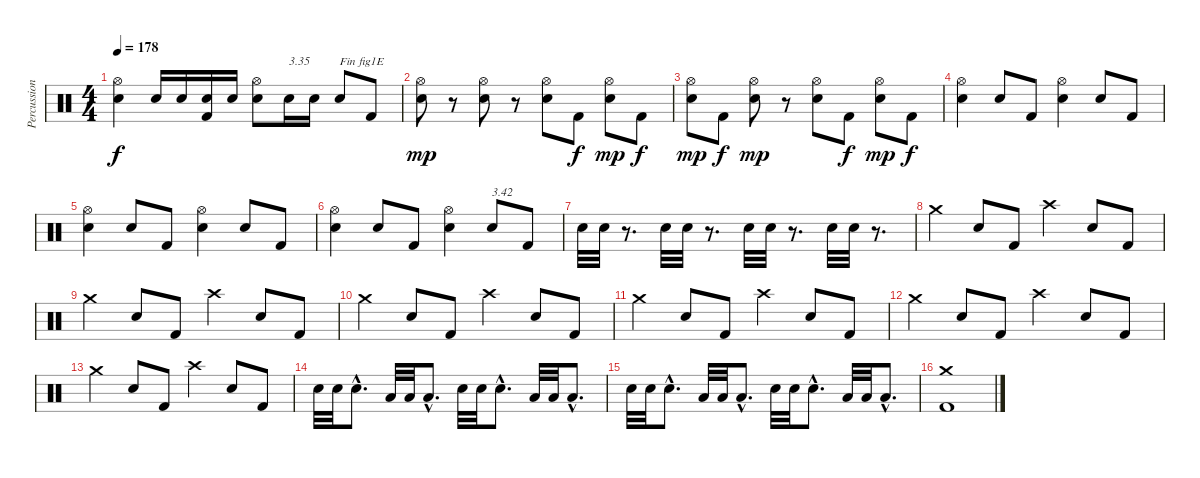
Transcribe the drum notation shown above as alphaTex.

\track ("Percussions" "Percussion") {instrument percussion}
\staff {score}
\articulation defaults
\ts (4 4)
\tempo 178
\clef neutral
\ks c
("Electric Snare (hit)" "Hi-Hat (open)").4{dy f} "Electric Snare (hit)".16 "Electric Snare (hit)".16 ("Kick (hit) 2" "Electric Snare (hit)").16 "Electric Snare (hit)".16 ("Electric Snare (hit)" "Hi-Hat (open)").8 "Electric Snare (hit)".16{txt "3.35"} "Electric Snare (hit)".16 "Electric Snare (hit)".8{txt "Fin fig1E"} "Kick (hit) 2".8 |
("Electric Snare (hit)" "Hi-Hat (open)").8{dy mp} r.8 ("Electric Snare (hit)" "Hi-Hat (open)").8 r.8 ("Electric Snare (hit)" "Hi-Hat (open)").8 "Kick (hit) 2".8{dy f} ("Electric Snare (hit)" "Hi-Hat (open)").8{dy mp} "Kick (hit) 2".8{dy f} |
("Electric Snare (hit)" "Hi-Hat (open)").8{dy mp} "Kick (hit) 2".8{dy f} ("Electric Snare (hit)" "Hi-Hat (open)").8{dy mp} r.8 ("Electric Snare (hit)" "Hi-Hat (open)").8 "Kick (hit) 2".8{dy f} ("Electric Snare (hit)" "Hi-Hat (open)").8{dy mp} "Kick (hit) 2".8{dy f} |
("Electric Snare (hit)" "Hi-Hat (open)").4 "Electric Snare (hit)".8 "Kick (hit) 2".8 ("Electric Snare (hit)" "Hi-Hat (open)").4 "Electric Snare (hit)".8 "Kick (hit) 2".8 |
("Electric Snare (hit)" "Hi-Hat (open)").4 "Electric Snare (hit)".8 "Kick (hit) 2".8 ("Electric Snare (hit)" "Hi-Hat (open)").4 "Electric Snare (hit)".8 "Kick (hit) 2".8 |
("Electric Snare (hit)" "Hi-Hat (open)").4 "Electric Snare (hit)".8 "Kick (hit) 2".8 ("Electric Snare (hit)" "Hi-Hat (open)").4 "Electric Snare (hit)".8{txt "3.42"} "Kick (hit) 2".8 |
"Electric Snare (hit)".32 "Electric Snare (hit)".32 r.8{d} "Electric Snare (hit)".32 "Electric Snare (hit)".32 r.8{d} "Electric Snare (hit)".32 "Electric Snare (hit)".32 r.8{d} "Electric Snare (hit)".32 "Electric Snare (hit)".32 r.8{d} |
"Crash medium (hit)".4 "Electric Snare (hit)".8 "Kick (hit) 2".8 "Crash high (hit)".4 "Electric Snare (hit)".8 "Kick (hit) 2".8 |
"Crash medium (hit)".4 "Electric Snare (hit)".8 "Kick (hit) 2".8 "Crash high (hit)".4 "Electric Snare (hit)".8 "Kick (hit) 2".8 |
"Crash medium (hit)".4 "Electric Snare (hit)".8 "Kick (hit) 2".8 "Crash high (hit)".4 "Electric Snare (hit)".8 "Kick (hit) 2".8 |
"Crash medium (hit)".4 "Electric Snare (hit)".8 "Kick (hit) 2".8 "Crash high (hit)".4 "Electric Snare (hit)".8 "Kick (hit) 2".8 |
"Crash medium (hit)".4 "Electric Snare (hit)".8 "Kick (hit) 2".8 "Crash high (hit)".4 "Electric Snare (hit)".8 "Kick (hit) 2".8 |
"Crash medium (hit)".4 "Electric Snare (hit)".8 "Kick (hit) 2".8 "Crash high (hit)".4 "Electric Snare (hit)".8 "Kick (hit) 2".8 |
"Electric Snare (hit)".32 "Electric Snare (hit)".32 "Electric Snare (hit)"{hac}.8{d} "Low Floor Tom (hit)".32 "Low Floor Tom (hit)".32 "Low Floor Tom (hit)"{hac}.8{d} "Electric Snare (hit)".32 "Electric Snare (hit)".32 "Electric Snare (hit)"{hac}.8{d} "Low Floor Tom (hit)".32 "Low Floor Tom (hit)".32 "Low Floor Tom (hit)"{hac}.8{d} |
"Electric Snare (hit)".32 "Electric Snare (hit)".32 "Electric Snare (hit)"{hac}.8{d} "Low Floor Tom (hit)".32 "Low Floor Tom (hit)".32 "Low Floor Tom (hit)"{hac}.8{d} "Electric Snare (hit)".32 "Electric Snare (hit)".32 "Electric Snare (hit)"{hac}.8{d} "Low Floor Tom (hit)".32 "Low Floor Tom (hit)".32 "Low Floor Tom (hit)"{hac}.8{d} |
("Kick (hit) 2" "Crash medium (hit)").1
